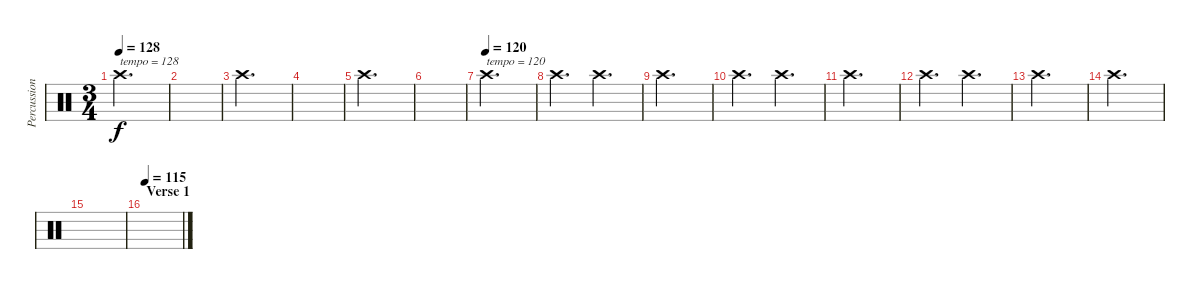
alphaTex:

\track ("Percussion" "Percussion") {instrument percussion}
\staff {score}
\articulation defaults
\ts (3 4)
\tempo 128
\clef neutral
\ks c "Crash high (hit)".2{d txt "tempo = 128" dy f}
|
|
"Crash high (hit)".2{d} |
|
"Crash high (hit)".2{d} |
|
\tempo (120)
"Crash high (hit)".2{d txt "tempo = 120"} |
"Crash high (hit)".4{d} "Crash high (hit)".4{d balance 11} |
"Crash high (hit)".2{d balance 5} |
"Crash high (hit)".4{d} "Crash high (hit)".4{d balance 11} |
"Crash high (hit)".2{d balance 5} |
"Crash high (hit)".4{d} "Crash high (hit)".4{d balance 11} |
"Crash high (hit)".2{d balance 5} |
"Crash high (hit)".2{d} |
|
\section ("" "Verse 1")
\tempo 115
